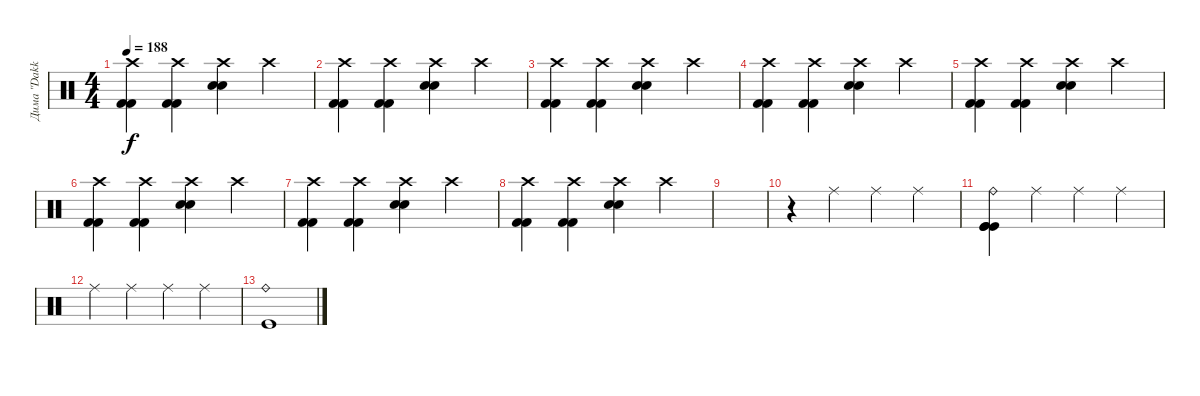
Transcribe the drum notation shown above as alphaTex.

\track ("Дима \"Dakkar\" Кеменов" "Дима \"Dakk") {instrument percussion}
\staff
\articulation defaults
\ts (4 4)
\tempo 188
\clef neutral
\ks c
("Crash high (hit)" "Kick (hit) 2" "Kick (hit) 2").4{dy f} ("Crash high (hit)" "Kick (hit) 2" "Kick (hit) 2").4 ("Crash high (hit)" "Snare (hit) 2" "Snare (hit) 2").4 "Crash high (hit)".4 |
("Crash high (hit)" "Kick (hit) 2" "Kick (hit) 2").4 ("Crash high (hit)" "Kick (hit) 2" "Kick (hit) 2").4 ("Crash high (hit)" "Snare (hit) 2" "Snare (hit) 2").4 "Crash high (hit)".4 |
("Crash high (hit)" "Kick (hit) 2" "Kick (hit) 2").4 ("Crash high (hit)" "Kick (hit) 2" "Kick (hit) 2").4 ("Crash high (hit)" "Snare (hit) 2" "Snare (hit) 2").4 "Crash high (hit)".4 |
("Crash high (hit)" "Kick (hit) 2" "Kick (hit) 2").4 ("Crash high (hit)" "Kick (hit) 2" "Kick (hit) 2").4 ("Crash high (hit)" "Snare (hit) 2" "Snare (hit) 2").4 "Crash high (hit)".4 |
("Crash high (hit)" "Kick (hit) 2" "Kick (hit) 2").4 ("Crash high (hit)" "Kick (hit) 2" "Kick (hit) 2").4 ("Crash high (hit)" "Snare (hit) 2" "Snare (hit) 2").4 "Crash high (hit)".4 |
("Crash high (hit)" "Kick (hit) 2" "Kick (hit) 2").4 ("Crash high (hit)" "Kick (hit) 2" "Kick (hit) 2").4 ("Crash high (hit)" "Snare (hit) 2" "Snare (hit) 2").4 "Crash high (hit)".4 |
("Crash high (hit)" "Kick (hit) 2" "Kick (hit) 2").4 ("Crash high (hit)" "Kick (hit) 2" "Kick (hit) 2").4 ("Crash high (hit)" "Snare (hit) 2" "Snare (hit) 2").4 "Crash high (hit)".4 |
("Crash high (hit)" "Kick (hit) 2" "Kick (hit) 2").4 ("Crash high (hit)" "Kick (hit) 2" "Kick (hit) 2").4 ("Crash high (hit)" "Snare (hit) 2" "Snare (hit) 2").4 "Crash high (hit)".4 |
|
r.4 "Ride (middle)".4 "Ride (middle)".4 "Ride (middle)".4 |
("Ride (bell)" "Kick (hit)" "Kick (hit)" "Kick (hit)").4 "Ride (middle)".4 "Ride (middle)".4 "Ride (middle)".4 |
"Ride (middle)".4 "Ride (middle)".4 "Ride (middle)".4 "Ride (middle)".4 |
("Ride (bell)" "Kick (hit)").1
